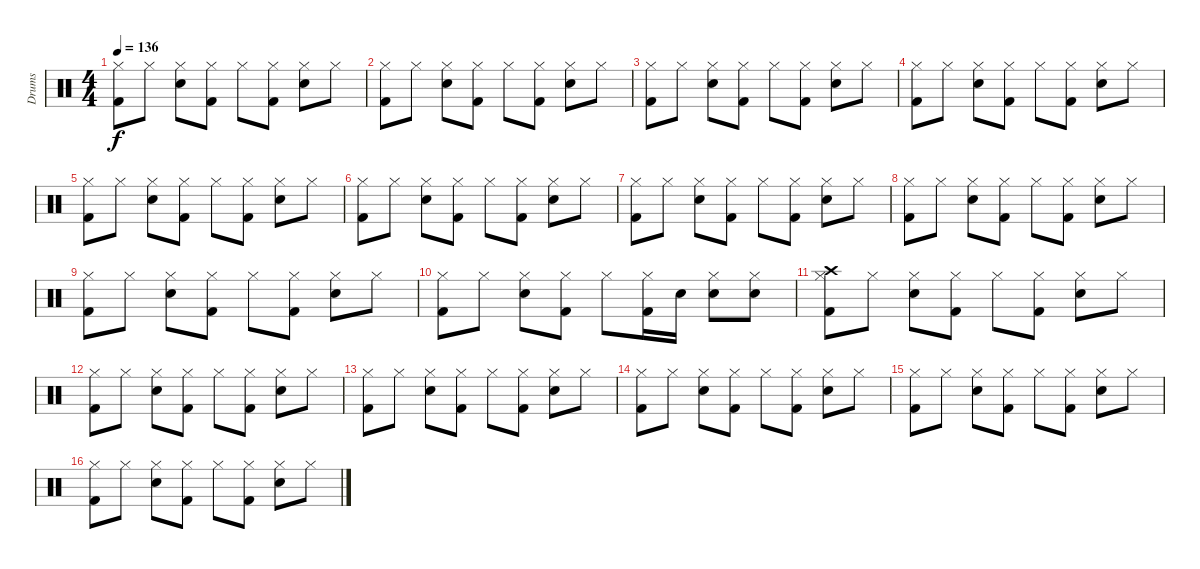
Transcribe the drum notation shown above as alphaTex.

\track ("Drums" "Drums") {instrument percussion}
\staff {score}
\articulation defaults
\ts (4 4)
\tempo 136
\clef neutral
\ks c
("Hi-Hat (closed)" "Kick (hit) 2").8{dy f} "Hi-Hat (closed)".8 ("Hi-Hat (closed)" "Snare (hit) 2").8 ("Hi-Hat (closed)" "Kick (hit) 2").8 "Hi-Hat (closed)".8 ("Hi-Hat (closed)" "Kick (hit) 2").8 ("Hi-Hat (closed)" "Snare (hit) 2").8 "Hi-Hat (closed)".8 |
("Hi-Hat (closed)" "Kick (hit) 2").8 "Hi-Hat (closed)".8 ("Hi-Hat (closed)" "Snare (hit) 2").8 ("Hi-Hat (closed)" "Kick (hit) 2").8 "Hi-Hat (closed)".8 ("Hi-Hat (closed)" "Kick (hit) 2").8 ("Hi-Hat (closed)" "Snare (hit) 2").8 "Hi-Hat (closed)".8 |
("Hi-Hat (closed)" "Kick (hit) 2").8 "Hi-Hat (closed)".8 ("Hi-Hat (closed)" "Snare (hit) 2").8 ("Hi-Hat (closed)" "Kick (hit) 2").8 "Hi-Hat (closed)".8 ("Hi-Hat (closed)" "Kick (hit) 2").8 ("Hi-Hat (closed)" "Snare (hit) 2").8 "Hi-Hat (closed)".8 |
("Hi-Hat (closed)" "Kick (hit) 2").8 "Hi-Hat (closed)".8 ("Hi-Hat (closed)" "Snare (hit) 2").8 ("Hi-Hat (closed)" "Kick (hit) 2").8 "Hi-Hat (closed)".8 ("Hi-Hat (closed)" "Kick (hit) 2").8 ("Hi-Hat (closed)" "Snare (hit) 2").8 "Hi-Hat (closed)".8 |
("Hi-Hat (closed)" "Kick (hit) 2").8 "Hi-Hat (closed)".8 ("Hi-Hat (closed)" "Snare (hit) 2").8 ("Hi-Hat (closed)" "Kick (hit) 2").8 "Hi-Hat (closed)".8 ("Hi-Hat (closed)" "Kick (hit) 2").8 ("Hi-Hat (closed)" "Snare (hit) 2").8 "Hi-Hat (closed)".8 |
("Hi-Hat (closed)" "Kick (hit) 2").8 "Hi-Hat (closed)".8 ("Hi-Hat (closed)" "Snare (hit) 2").8 ("Hi-Hat (closed)" "Kick (hit) 2").8 "Hi-Hat (closed)".8 ("Hi-Hat (closed)" "Kick (hit) 2").8 ("Hi-Hat (closed)" "Snare (hit) 2").8 "Hi-Hat (closed)".8 |
("Hi-Hat (closed)" "Kick (hit) 2").8 "Hi-Hat (closed)".8 ("Hi-Hat (closed)" "Snare (hit) 2").8 ("Hi-Hat (closed)" "Kick (hit) 2").8 "Hi-Hat (closed)".8 ("Hi-Hat (closed)" "Kick (hit) 2").8 ("Hi-Hat (closed)" "Snare (hit) 2").8 "Hi-Hat (closed)".8 |
("Hi-Hat (closed)" "Kick (hit) 2").8 "Hi-Hat (closed)".8 ("Hi-Hat (closed)" "Snare (hit) 2").8 ("Hi-Hat (closed)" "Kick (hit) 2").8 "Hi-Hat (closed)".8 ("Hi-Hat (closed)" "Kick (hit) 2").8 ("Hi-Hat (closed)" "Snare (hit) 2").8 "Hi-Hat (closed)".8 |
("Hi-Hat (closed)" "Kick (hit) 2").8 "Hi-Hat (closed)".8 ("Hi-Hat (closed)" "Snare (hit) 2").8 ("Hi-Hat (closed)" "Kick (hit) 2").8 "Hi-Hat (closed)".8 ("Hi-Hat (closed)" "Kick (hit) 2").8 ("Hi-Hat (closed)" "Snare (hit) 2").8 "Hi-Hat (closed)".8 |
("Hi-Hat (closed)" "Kick (hit) 2").8 "Hi-Hat (closed)".8 ("Hi-Hat (closed)" "Snare (hit) 2").8 ("Hi-Hat (closed)" "Kick (hit) 2").8 "Hi-Hat (closed)".8 ("Hi-Hat (closed)" "Kick (hit) 2").16 "Snare (hit) 2".16 ("Hi-Hat (closed)" "Snare (hit) 2").8 ("Hi-Hat (closed)" "Snare (hit) 2").8 |
("Crash high (hit)" "Hi-Hat (closed)" "Kick (hit) 2").8 "Hi-Hat (closed)".8 ("Hi-Hat (closed)" "Snare (hit) 2").8 ("Hi-Hat (closed)" "Kick (hit) 2").8 "Hi-Hat (closed)".8 ("Hi-Hat (closed)" "Kick (hit) 2").8 ("Hi-Hat (closed)" "Snare (hit) 2").8 "Hi-Hat (closed)".8 |
("Hi-Hat (closed)" "Kick (hit) 2").8 "Hi-Hat (closed)".8 ("Hi-Hat (closed)" "Snare (hit) 2").8 ("Hi-Hat (closed)" "Kick (hit) 2").8 "Hi-Hat (closed)".8 ("Hi-Hat (closed)" "Kick (hit) 2").8 ("Hi-Hat (closed)" "Snare (hit) 2").8 "Hi-Hat (closed)".8 |
("Hi-Hat (closed)" "Kick (hit) 2").8 "Hi-Hat (closed)".8 ("Hi-Hat (closed)" "Snare (hit) 2").8 ("Hi-Hat (closed)" "Kick (hit) 2").8 "Hi-Hat (closed)".8 ("Hi-Hat (closed)" "Kick (hit) 2").8 ("Hi-Hat (closed)" "Snare (hit) 2").8 "Hi-Hat (closed)".8 |
("Hi-Hat (closed)" "Kick (hit) 2").8 "Hi-Hat (closed)".8 ("Hi-Hat (closed)" "Snare (hit) 2").8 ("Hi-Hat (closed)" "Kick (hit) 2").8 "Hi-Hat (closed)".8 ("Hi-Hat (closed)" "Kick (hit) 2").8 ("Hi-Hat (closed)" "Snare (hit) 2").8 "Hi-Hat (closed)".8 |
("Hi-Hat (closed)" "Kick (hit) 2").8 "Hi-Hat (closed)".8 ("Hi-Hat (closed)" "Snare (hit) 2").8 ("Hi-Hat (closed)" "Kick (hit) 2").8 "Hi-Hat (closed)".8 ("Hi-Hat (closed)" "Kick (hit) 2").8 ("Hi-Hat (closed)" "Snare (hit) 2").8 "Hi-Hat (closed)".8 |
("Hi-Hat (closed)" "Kick (hit) 2").8 "Hi-Hat (closed)".8 ("Hi-Hat (closed)" "Snare (hit) 2").8 ("Hi-Hat (closed)" "Kick (hit) 2").8 "Hi-Hat (closed)".8 ("Hi-Hat (closed)" "Kick (hit) 2").8 ("Hi-Hat (closed)" "Snare (hit) 2").8 "Hi-Hat (closed)".8
